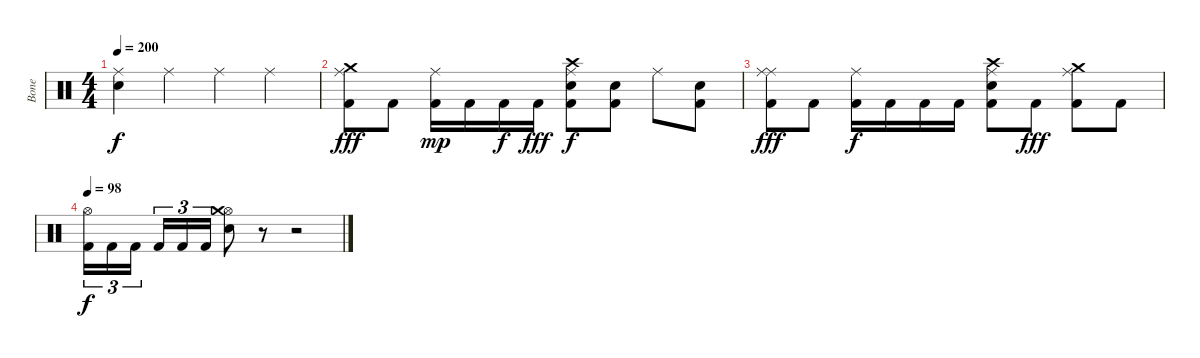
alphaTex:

\track ("Bone " "Bone ") {instrument percussion}
\staff {score}
\articulation defaults
\ts (4 4)
\tempo 200
\clef neutral
\ks c
("Ride (middle)" "Electric Snare (hit)").4{dy f} "Ride (middle)".4 "Ride (middle)".4 "Ride (middle)".4 |
("Ride (middle)" "Crash medium (hit)" "Kick (hit) 2").8{dy fff} "Kick (hit) 2".8 ("Ride (middle)" "Kick (hit) 2").16{dy mp} "Kick (hit) 2".16 "Kick (hit) 2".16{dy f} "Kick (hit) 2".16{dy fff} ("Ride (middle)" "Crash high (hit)" "Electric Snare (hit)" "Kick (hit) 2").8{dy f} ("Electric Snare (hit)" "Kick (hit) 2").8 "Ride (middle)".8 ("Electric Snare (hit)" "Kick (hit) 2").8 |
("Ride (middle)" "Ride (middle)" "Kick (hit) 2").8{dy fff} "Kick (hit) 2".8 ("Ride (middle)" "Kick (hit) 2").16{dy f} "Kick (hit) 2".16 "Kick (hit) 2".16 "Kick (hit) 2".16 ("Ride (middle)" "Crash high (hit)" "Electric Snare (hit)" "Kick (hit) 2").8 "Kick (hit) 2".8{dy fff} ("Ride (middle)" "Crash medium (hit)" "Kick (hit) 2").8 "Kick (hit) 2".8 |
\tempo 98
("Hi-Hat (open)" "Kick (hit) 2").16{tu (3 2) dy f} "Kick (hit) 2".16{tu (3 2)} "Kick (hit) 2".16{tu (3 2) beam splitsecondary} "Kick (hit) 2".16{tu (3 2)} "Kick (hit) 2".16{tu (3 2)} "Kick (hit) 2".16{tu (3 2)} ("Hi-Hat (open)" "Crash medium (hit)" "Electric Snare (hit)").8 r.8 r.2
